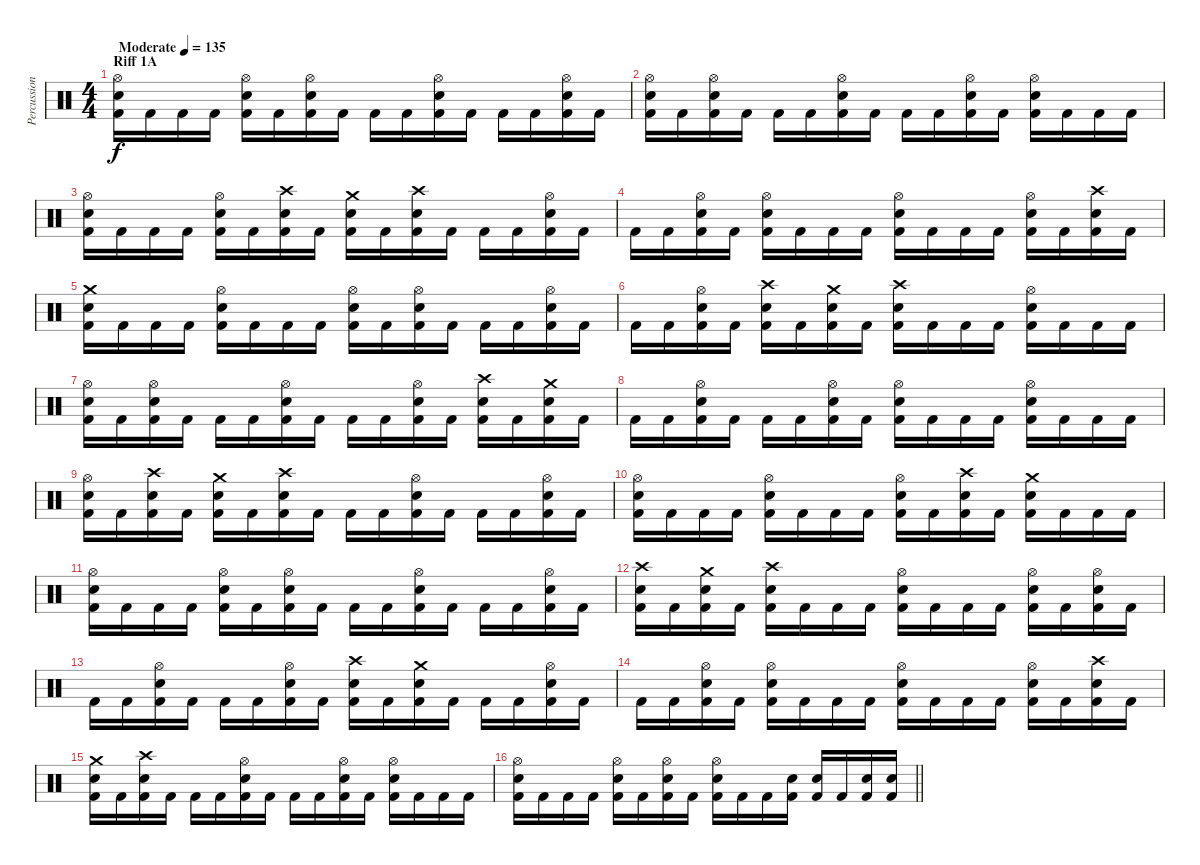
\track ("Percussion" "Percussion") {instrument percussion}
\staff {score}
\articulation defaults
\ts (4 4)
\section ("" "Riff 1A")
\tempo (135 "Moderate")
\clef neutral
\ks c
("Hi-Hat (open)" "Snare (hit) 2" "Kick (hit) 2").16{dy f} "Kick (hit) 2".16 "Kick (hit) 2".16 "Kick (hit) 2".16 ("Hi-Hat (open)" "Snare (hit) 2" "Kick (hit) 2").16 "Kick (hit) 2".16 ("Hi-Hat (open)" "Snare (hit) 2" "Kick (hit) 2").16 "Kick (hit) 2".16 "Kick (hit) 2".16 "Kick (hit) 2".16 ("Hi-Hat (open)" "Snare (hit) 2" "Kick (hit) 2").16 "Kick (hit) 2".16 "Kick (hit) 2".16 "Kick (hit) 2".16 ("Hi-Hat (open)" "Snare (hit) 2" "Kick (hit) 2").16 "Kick (hit) 2".16 |
("Hi-Hat (open)" "Snare (hit) 2" "Kick (hit) 2").16 "Kick (hit) 2".16 ("Hi-Hat (open)" "Snare (hit) 2" "Kick (hit) 2").16 "Kick (hit) 2".16 "Kick (hit) 2".16 "Kick (hit) 2".16 ("Hi-Hat (open)" "Snare (hit) 2" "Kick (hit) 2").16 "Kick (hit) 2".16 "Kick (hit) 2".16 "Kick (hit) 2".16 ("Hi-Hat (open)" "Snare (hit) 2" "Kick (hit) 2").16 "Kick (hit) 2".16 ("Hi-Hat (open)" "Snare (hit) 2" "Kick (hit) 2").16 "Kick (hit) 2".16 "Kick (hit) 2".16 "Kick (hit) 2".16 |
("Hi-Hat (open)" "Snare (hit) 2" "Kick (hit) 2").16 "Kick (hit) 2".16 "Kick (hit) 2".16 "Kick (hit) 2".16 ("Hi-Hat (open)" "Snare (hit) 2" "Kick (hit) 2").16 "Kick (hit) 2".16 ("Crash high (hit)" "Snare (hit) 2" "Kick (hit) 2").16 "Kick (hit) 2".16 ("Crash medium (hit)" "Snare (hit) 2" "Kick (hit) 2").16 "Kick (hit) 2".16 ("Crash high (hit)" "Snare (hit) 2" "Kick (hit) 2").16 "Kick (hit) 2".16 "Kick (hit) 2".16 "Kick (hit) 2".16 ("Hi-Hat (open)" "Snare (hit) 2" "Kick (hit) 2").16 "Kick (hit) 2".16 |
"Kick (hit) 2".16 "Kick (hit) 2".16 ("Hi-Hat (open)" "Snare (hit) 2" "Kick (hit) 2").16 "Kick (hit) 2".16 ("Hi-Hat (open)" "Snare (hit) 2" "Kick (hit) 2").16 "Kick (hit) 2".16 "Kick (hit) 2".16 "Kick (hit) 2".16 ("Hi-Hat (open)" "Snare (hit) 2" "Kick (hit) 2").16 "Kick (hit) 2".16 "Kick (hit) 2".16 "Kick (hit) 2".16 ("Hi-Hat (open)" "Snare (hit) 2" "Kick (hit) 2").16 "Kick (hit) 2".16 ("Crash high (hit)" "Snare (hit) 2" "Kick (hit) 2").16 "Kick (hit) 2".16 |
("Crash medium (hit)" "Snare (hit) 2" "Kick (hit) 2").16 "Kick (hit) 2".16 "Kick (hit) 2".16 "Kick (hit) 2".16 ("Hi-Hat (open)" "Snare (hit) 2" "Kick (hit) 2").16 "Kick (hit) 2".16 "Kick (hit) 2".16 "Kick (hit) 2".16 ("Hi-Hat (open)" "Snare (hit) 2" "Kick (hit) 2").16 "Kick (hit) 2".16 ("Hi-Hat (open)" "Snare (hit) 2" "Kick (hit) 2").16 "Kick (hit) 2".16 "Kick (hit) 2".16 "Kick (hit) 2".16 ("Hi-Hat (open)" "Snare (hit) 2" "Kick (hit) 2").16 "Kick (hit) 2".16 |
"Kick (hit) 2".16 "Kick (hit) 2".16 ("Hi-Hat (open)" "Snare (hit) 2" "Kick (hit) 2").16 "Kick (hit) 2".16 ("Crash high (hit)" "Snare (hit) 2" "Kick (hit) 2").16 "Kick (hit) 2".16 ("Crash medium (hit)" "Snare (hit) 2" "Kick (hit) 2").16 "Kick (hit) 2".16 ("Crash high (hit)" "Snare (hit) 2" "Kick (hit) 2").16 "Kick (hit) 2".16 "Kick (hit) 2".16 "Kick (hit) 2".16 ("Hi-Hat (open)" "Snare (hit) 2" "Kick (hit) 2").16 "Kick (hit) 2".16 "Kick (hit) 2".16 "Kick (hit) 2".16 |
("Hi-Hat (open)" "Snare (hit) 2" "Kick (hit) 2").16 "Kick (hit) 2".16 ("Hi-Hat (open)" "Snare (hit) 2" "Kick (hit) 2").16 "Kick (hit) 2".16 "Kick (hit) 2".16 "Kick (hit) 2".16 ("Hi-Hat (open)" "Snare (hit) 2" "Kick (hit) 2").16 "Kick (hit) 2".16 "Kick (hit) 2".16 "Kick (hit) 2".16 ("Hi-Hat (open)" "Snare (hit) 2" "Kick (hit) 2").16 "Kick (hit) 2".16 ("Crash high (hit)" "Snare (hit) 2" "Kick (hit) 2").16 "Kick (hit) 2".16 ("Crash medium (hit)" "Snare (hit) 2" "Kick (hit) 2").16 "Kick (hit) 2".16 |
"Kick (hit) 2".16 "Kick (hit) 2".16 ("Hi-Hat (open)" "Snare (hit) 2" "Kick (hit) 2").16 "Kick (hit) 2".16 "Kick (hit) 2".16 "Kick (hit) 2".16 ("Hi-Hat (open)" "Snare (hit) 2" "Kick (hit) 2").16 "Kick (hit) 2".16 ("Hi-Hat (open)" "Snare (hit) 2" "Kick (hit) 2").16 "Kick (hit) 2".16 "Kick (hit) 2".16 "Kick (hit) 2".16 ("Hi-Hat (open)" "Snare (hit) 2" "Kick (hit) 2").16 "Kick (hit) 2".16 "Kick (hit) 2".16 "Kick (hit) 2".16 |
("Hi-Hat (open)" "Snare (hit) 2" "Kick (hit) 2").16 "Kick (hit) 2".16 ("Crash high (hit)" "Snare (hit) 2" "Kick (hit) 2").16 "Kick (hit) 2".16 ("Crash medium (hit)" "Snare (hit) 2" "Kick (hit) 2").16 "Kick (hit) 2".16 ("Crash high (hit)" "Snare (hit) 2" "Kick (hit) 2").16 "Kick (hit) 2".16 "Kick (hit) 2".16 "Kick (hit) 2".16 ("Hi-Hat (open)" "Snare (hit) 2" "Kick (hit) 2").16 "Kick (hit) 2".16 "Kick (hit) 2".16 "Kick (hit) 2".16 ("Hi-Hat (open)" "Snare (hit) 2" "Kick (hit) 2").16 "Kick (hit) 2".16 |
("Hi-Hat (open)" "Snare (hit) 2" "Kick (hit) 2").16 "Kick (hit) 2".16 "Kick (hit) 2".16 "Kick (hit) 2".16 ("Hi-Hat (open)" "Snare (hit) 2" "Kick (hit) 2").16 "Kick (hit) 2".16 "Kick (hit) 2".16 "Kick (hit) 2".16 ("Hi-Hat (open)" "Snare (hit) 2" "Kick (hit) 2").16 "Kick (hit) 2".16 ("Crash high (hit)" "Snare (hit) 2" "Kick (hit) 2").16 "Kick (hit) 2".16 ("Crash medium (hit)" "Snare (hit) 2" "Kick (hit) 2").16 "Kick (hit) 2".16 "Kick (hit) 2".16 "Kick (hit) 2".16 |
("Hi-Hat (open)" "Snare (hit) 2" "Kick (hit) 2").16 "Kick (hit) 2".16 "Kick (hit) 2".16 "Kick (hit) 2".16 ("Hi-Hat (open)" "Snare (hit) 2" "Kick (hit) 2").16 "Kick (hit) 2".16 ("Hi-Hat (open)" "Snare (hit) 2" "Kick (hit) 2").16 "Kick (hit) 2".16 "Kick (hit) 2".16 "Kick (hit) 2".16 ("Hi-Hat (open)" "Snare (hit) 2" "Kick (hit) 2").16 "Kick (hit) 2".16 "Kick (hit) 2".16 "Kick (hit) 2".16 ("Hi-Hat (open)" "Snare (hit) 2" "Kick (hit) 2").16 "Kick (hit) 2".16 |
("Crash high (hit)" "Snare (hit) 2" "Kick (hit) 2").16 "Kick (hit) 2".16 ("Crash medium (hit)" "Snare (hit) 2" "Kick (hit) 2").16 "Kick (hit) 2".16 ("Crash high (hit)" "Snare (hit) 2" "Kick (hit) 2").16 "Kick (hit) 2".16 "Kick (hit) 2".16 "Kick (hit) 2".16 ("Hi-Hat (open)" "Snare (hit) 2" "Kick (hit) 2").16 "Kick (hit) 2".16 "Kick (hit) 2".16 "Kick (hit) 2".16 ("Hi-Hat (open)" "Snare (hit) 2" "Kick (hit) 2").16 "Kick (hit) 2".16 ("Hi-Hat (open)" "Snare (hit) 2" "Kick (hit) 2").16 "Kick (hit) 2".16 |
"Kick (hit) 2".16 "Kick (hit) 2".16 ("Hi-Hat (open)" "Snare (hit) 2" "Kick (hit) 2").16 "Kick (hit) 2".16 "Kick (hit) 2".16 "Kick (hit) 2".16 ("Hi-Hat (open)" "Snare (hit) 2" "Kick (hit) 2").16 "Kick (hit) 2".16 ("Crash high (hit)" "Snare (hit) 2" "Kick (hit) 2").16 "Kick (hit) 2".16 ("Crash medium (hit)" "Snare (hit) 2" "Kick (hit) 2").16 "Kick (hit) 2".16 "Kick (hit) 2".16 "Kick (hit) 2".16 ("Hi-Hat (open)" "Snare (hit) 2" "Kick (hit) 2").16 "Kick (hit) 2".16 |
"Kick (hit) 2".16 "Kick (hit) 2".16 ("Hi-Hat (open)" "Snare (hit) 2" "Kick (hit) 2").16 "Kick (hit) 2".16 ("Hi-Hat (open)" "Snare (hit) 2" "Kick (hit) 2").16 "Kick (hit) 2".16 "Kick (hit) 2".16 "Kick (hit) 2".16 ("Hi-Hat (open)" "Snare (hit) 2" "Kick (hit) 2").16 "Kick (hit) 2".16 "Kick (hit) 2".16 "Kick (hit) 2".16 ("Hi-Hat (open)" "Snare (hit) 2" "Kick (hit) 2").16 "Kick (hit) 2".16 ("Crash high (hit)" "Snare (hit) 2" "Kick (hit) 2").16 "Kick (hit) 2".16 |
("Crash medium (hit)" "Snare (hit) 2" "Kick (hit) 2").16 "Kick (hit) 2".16 ("Crash high (hit)" "Snare (hit) 2" "Kick (hit) 2").16 "Kick (hit) 2".16 "Kick (hit) 2".16 "Kick (hit) 2".16 ("Hi-Hat (open)" "Snare (hit) 2" "Kick (hit) 2").16 "Kick (hit) 2".16 "Kick (hit) 2".16 "Kick (hit) 2".16 ("Hi-Hat (open)" "Snare (hit) 2" "Kick (hit) 2").16 "Kick (hit) 2".16 ("Hi-Hat (open)" "Snare (hit) 2" "Kick (hit) 2").16 "Kick (hit) 2".16 "Kick (hit) 2".16 "Kick (hit) 2".16 |
\barLineRight lightlight
("Hi-Hat (open)" "Snare (hit) 2" "Kick (hit) 2").16 "Kick (hit) 2".16 "Kick (hit) 2".16 "Kick (hit) 2".16 ("Hi-Hat (open)" "Snare (hit) 2" "Kick (hit) 2").16 "Kick (hit) 2".16 ("Hi-Hat (open)" "Snare (hit) 2" "Kick (hit) 2").16 "Kick (hit) 2".16 ("Hi-Hat (open)" "Snare (hit) 2" "Kick (hit) 2").16 "Kick (hit) 2".16 "Kick (hit) 2".16 ("Snare (hit) 2" "Kick (hit) 2").16 ("Snare (hit) 2" "Kick (hit) 2").16 "Kick (hit) 2".16 ("Snare (hit) 2" "Kick (hit) 2").16 ("Snare (hit) 2" "Kick (hit) 2").16
